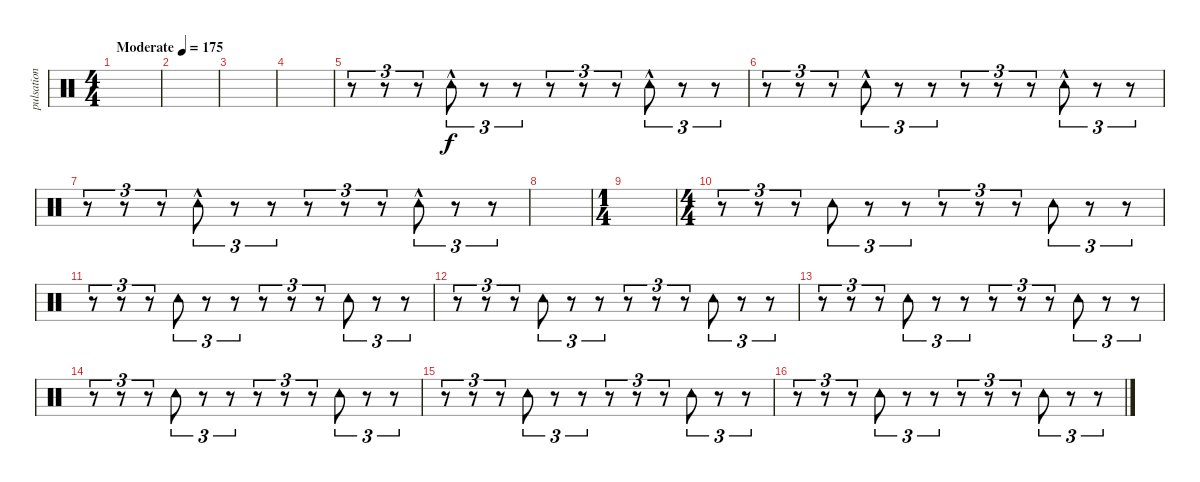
\track ("pulsation" "pulsation") {instrument percussion}
\staff {score}
\articulation defaults
\ts (4 4)
\tempo (175 "Moderate")
\clef neutral
\ks c
|
|
|
|
r.8{tu (3 2)} r.8{tu (3 2)} r.8{tu (3 2)} "Tambourine (hit)"{hac}.8{tu (3 2)} r.8{tu (3 2)} r.8{tu (3 2)} r.8{tu (3 2)} r.8{tu (3 2)} r.8{tu (3 2)} "Tambourine (hit)"{hac}.8{tu (3 2)} r.8{tu (3 2)} r.8{tu (3 2)} |
r.8{tu (3 2)} r.8{tu (3 2)} r.8{tu (3 2)} "Tambourine (hit)"{hac}.8{tu (3 2)} r.8{tu (3 2)} r.8{tu (3 2)} r.8{tu (3 2)} r.8{tu (3 2)} r.8{tu (3 2)} "Tambourine (hit)"{hac}.8{tu (3 2)} r.8{tu (3 2)} r.8{tu (3 2)} |
r.8{tu (3 2)} r.8{tu (3 2)} r.8{tu (3 2)} "Tambourine (hit)"{hac}.8{tu (3 2)} r.8{tu (3 2)} r.8{tu (3 2)} r.8{tu (3 2)} r.8{tu (3 2)} r.8{tu (3 2)} "Tambourine (hit)"{hac}.8{tu (3 2)} r.8{tu (3 2)} r.8{tu (3 2)} |
|
\ts (1 4)
|
\ts (4 4)
r.8{tu (3 2)} r.8{tu (3 2)} r.8{tu (3 2)} "Tambourine (hit)".8{tu (3 2) dy f} r.8{tu (3 2)} r.8{tu (3 2)} r.8{tu (3 2)} r.8{tu (3 2)} r.8{tu (3 2)} "Tambourine (hit)".8{tu (3 2)} r.8{tu (3 2)} r.8{tu (3 2)} |
r.8{tu (3 2)} r.8{tu (3 2)} r.8{tu (3 2)} "Tambourine (hit)".8{tu (3 2)} r.8{tu (3 2)} r.8{tu (3 2)} r.8{tu (3 2)} r.8{tu (3 2)} r.8{tu (3 2)} "Tambourine (hit)".8{tu (3 2)} r.8{tu (3 2)} r.8{tu (3 2)} |
r.8{tu (3 2)} r.8{tu (3 2)} r.8{tu (3 2)} "Tambourine (hit)".8{tu (3 2)} r.8{tu (3 2)} r.8{tu (3 2)} r.8{tu (3 2)} r.8{tu (3 2)} r.8{tu (3 2)} "Tambourine (hit)".8{tu (3 2)} r.8{tu (3 2)} r.8{tu (3 2)} |
r.8{tu (3 2)} r.8{tu (3 2)} r.8{tu (3 2)} "Tambourine (hit)".8{tu (3 2)} r.8{tu (3 2)} r.8{tu (3 2)} r.8{tu (3 2)} r.8{tu (3 2)} r.8{tu (3 2)} "Tambourine (hit)".8{tu (3 2)} r.8{tu (3 2)} r.8{tu (3 2)} |
r.8{tu (3 2)} r.8{tu (3 2)} r.8{tu (3 2)} "Tambourine (hit)".8{tu (3 2)} r.8{tu (3 2)} r.8{tu (3 2)} r.8{tu (3 2)} r.8{tu (3 2)} r.8{tu (3 2)} "Tambourine (hit)".8{tu (3 2)} r.8{tu (3 2)} r.8{tu (3 2)} |
r.8{tu (3 2)} r.8{tu (3 2)} r.8{tu (3 2)} "Tambourine (hit)".8{tu (3 2)} r.8{tu (3 2)} r.8{tu (3 2)} r.8{tu (3 2)} r.8{tu (3 2)} r.8{tu (3 2)} "Tambourine (hit)".8{tu (3 2)} r.8{tu (3 2)} r.8{tu (3 2)} |
r.8{tu (3 2)} r.8{tu (3 2)} r.8{tu (3 2)} "Tambourine (hit)".8{tu (3 2)} r.8{tu (3 2)} r.8{tu (3 2)} r.8{tu (3 2)} r.8{tu (3 2)} r.8{tu (3 2)} "Tambourine (hit)".8{tu (3 2)} r.8{tu (3 2)} r.8{tu (3 2)}
